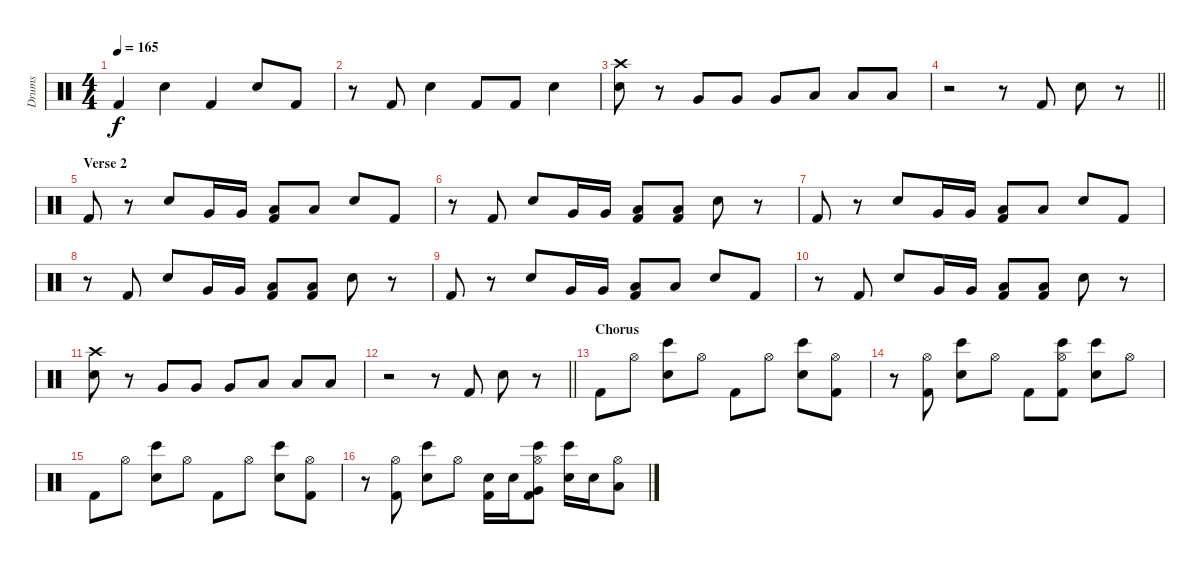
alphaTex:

\track ("Drums" "Drums") {instrument percussion}
\staff {score}
\articulation defaults
\ts (4 4)
\tempo 165
\clef neutral
\ks c "Kick (hit) 2".4{dy f} "Electric Snare (hit)".4 "Kick (hit) 2".4 "Electric Snare (hit)".8 "Kick (hit) 2".8
|
r.8 "Kick (hit) 2".8 "Electric Snare (hit)".4 "Kick (hit) 2".8 "Kick (hit) 2".8 "Electric Snare (hit)".4 |
("Crash high (hit)" "Electric Snare (hit)").8 r.8 "Very Low Tom (hit)".8 "Very Low Tom (hit)".8 "Very Low Tom (hit)".8 "Low Floor Tom (hit)".8 "Low Floor Tom (hit)".8 "Low Floor Tom (hit)".8 |
\barLineRight lightlight
r.2 r.8 "Kick (hit) 2".8 "Electric Snare (hit)".8 r.8 |
\section ("" "Verse 2")
"Kick (hit) 2".8 r.8 "Electric Snare (hit)".8 "Very Low Tom (hit)".16 "Very Low Tom (hit)".16 ("Kick (hit) 2" "Low Floor Tom (hit)").8 "Low Floor Tom (hit)".8 "Electric Snare (hit)".8 "Kick (hit) 2".8 |
r.8 "Kick (hit) 2".8 "Electric Snare (hit)".8 "Very Low Tom (hit)".16 "Very Low Tom (hit)".16 ("Kick (hit) 2" "Low Floor Tom (hit)").8 ("Kick (hit) 2" "Low Floor Tom (hit)").8 "Electric Snare (hit)".8 r.8 |
"Kick (hit) 2".8 r.8 "Electric Snare (hit)".8 "Very Low Tom (hit)".16 "Very Low Tom (hit)".16 ("Kick (hit) 2" "Low Floor Tom (hit)").8 "Low Floor Tom (hit)".8 "Electric Snare (hit)".8 "Kick (hit) 2".8 |
r.8 "Kick (hit) 2".8 "Electric Snare (hit)".8 "Very Low Tom (hit)".16 "Very Low Tom (hit)".16 ("Kick (hit) 2" "Low Floor Tom (hit)").8 ("Kick (hit) 2" "Low Floor Tom (hit)").8 "Electric Snare (hit)".8 r.8 |
"Kick (hit) 2".8 r.8 "Electric Snare (hit)".8 "Very Low Tom (hit)".16 "Very Low Tom (hit)".16 ("Kick (hit) 2" "Low Floor Tom (hit)").8 "Low Floor Tom (hit)".8 "Electric Snare (hit)".8 "Kick (hit) 2".8 |
r.8 "Kick (hit) 2".8 "Electric Snare (hit)".8 "Very Low Tom (hit)".16 "Very Low Tom (hit)".16 ("Kick (hit) 2" "Low Floor Tom (hit)").8 ("Kick (hit) 2" "Low Floor Tom (hit)").8 "Electric Snare (hit)".8 r.8 |
("Crash high (hit)" "Electric Snare (hit)").8 r.8 "Very Low Tom (hit)".8 "Very Low Tom (hit)".8 "Very Low Tom (hit)".8 "Low Floor Tom (hit)".8 "Low Floor Tom (hit)".8 "Low Floor Tom (hit)".8 |
\barLineRight lightlight
r.2 r.8 "Kick (hit) 2".8 "Electric Snare (hit)".8 r.8 |
\section ("" "Chorus")
"Kick (hit) 2".8 "Hi-Hat (open)".8 ("Electric Snare (hit)" "Bongo High (hit)").8 "Hi-Hat (open)".8 "Kick (hit) 2".8 "Hi-Hat (open)".8 ("Electric Snare (hit)" "Bongo High (hit)").8 ("Hi-Hat (open)" "Kick (hit) 2").8 |
r.8 ("Hi-Hat (open)" "Kick (hit) 2").8 ("Electric Snare (hit)" "Bongo High (hit)").8 "Hi-Hat (open)".8 "Kick (hit) 2".8 ("Hi-Hat (open)" "Kick (hit) 2" "Bongo High (hit)").8 ("Electric Snare (hit)" "Bongo High (hit)").8 "Hi-Hat (open)".8 |
"Kick (hit) 2".8 "Hi-Hat (open)".8 ("Electric Snare (hit)" "Bongo High (hit)").8 "Hi-Hat (open)".8 "Kick (hit) 2".8 "Hi-Hat (open)".8 ("Electric Snare (hit)" "Bongo High (hit)").8 ("Hi-Hat (open)" "Kick (hit) 2").8 |
r.8 ("Hi-Hat (open)" "Kick (hit) 2").8 ("Electric Snare (hit)" "Bongo High (hit)").8 "Hi-Hat (open)".8 ("Kick (hit) 2" "Electric Snare (hit)").16 "Electric Snare (hit)".16 ("Hi-Hat (open)" "Kick (hit) 2" "Very Low Tom (hit)" "Bongo High (hit)").8 ("Electric Snare (hit)" "Bongo High (hit)").16 "Electric Snare (hit)".16 ("Hi-Hat (open)" "Low Floor Tom (hit)").8
